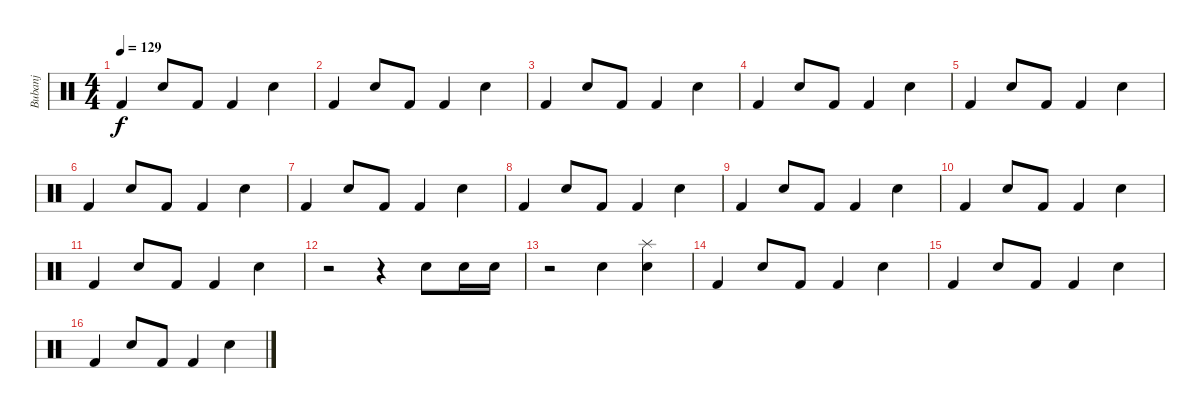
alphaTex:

\track ("Bubanj" "Bubanj") {instrument percussion}
\staff {score}
\articulation defaults
\ts (4 4)
\tempo 129
\clef neutral
\ks c "Kick (hit) 2".4{dy f} "Electric Snare (hit)".8 "Kick (hit) 2".8 "Kick (hit) 2".4 "Electric Snare (hit)".4
|
"Kick (hit) 2".4 "Electric Snare (hit)".8 "Kick (hit) 2".8 "Kick (hit) 2".4 "Electric Snare (hit)".4 |
"Kick (hit) 2".4 "Electric Snare (hit)".8 "Kick (hit) 2".8 "Kick (hit) 2".4 "Electric Snare (hit)".4 |
"Kick (hit) 2".4 "Electric Snare (hit)".8 "Kick (hit) 2".8 "Kick (hit) 2".4 "Electric Snare (hit)".4 |
"Kick (hit) 2".4 "Electric Snare (hit)".8 "Kick (hit) 2".8 "Kick (hit) 2".4 "Electric Snare (hit)".4 |
"Kick (hit) 2".4 "Electric Snare (hit)".8 "Kick (hit) 2".8 "Kick (hit) 2".4 "Electric Snare (hit)".4 |
"Kick (hit) 2".4 "Electric Snare (hit)".8 "Kick (hit) 2".8 "Kick (hit) 2".4 "Electric Snare (hit)".4 |
"Kick (hit) 2".4 "Electric Snare (hit)".8 "Kick (hit) 2".8 "Kick (hit) 2".4 "Electric Snare (hit)".4 |
"Kick (hit) 2".4 "Electric Snare (hit)".8 "Kick (hit) 2".8 "Kick (hit) 2".4 "Electric Snare (hit)".4 |
"Kick (hit) 2".4 "Electric Snare (hit)".8 "Kick (hit) 2".8 "Kick (hit) 2".4 "Electric Snare (hit)".4 |
"Kick (hit) 2".4 "Electric Snare (hit)".8 "Kick (hit) 2".8 "Kick (hit) 2".4 "Electric Snare (hit)".4 |
r.2 r.4 "Electric Snare (hit)".8 "Electric Snare (hit)".16 "Electric Snare (hit)".16 |
r.2 "Electric Snare (hit)".4 ("Splash (hit)" "Electric Snare (hit)").4 |
"Kick (hit) 2".4 "Electric Snare (hit)".8 "Kick (hit) 2".8 "Kick (hit) 2".4 "Electric Snare (hit)".4 |
"Kick (hit) 2".4 "Electric Snare (hit)".8 "Kick (hit) 2".8 "Kick (hit) 2".4 "Electric Snare (hit)".4 |
"Kick (hit) 2".4 "Electric Snare (hit)".8 "Kick (hit) 2".8 "Kick (hit) 2".4 "Electric Snare (hit)".4
